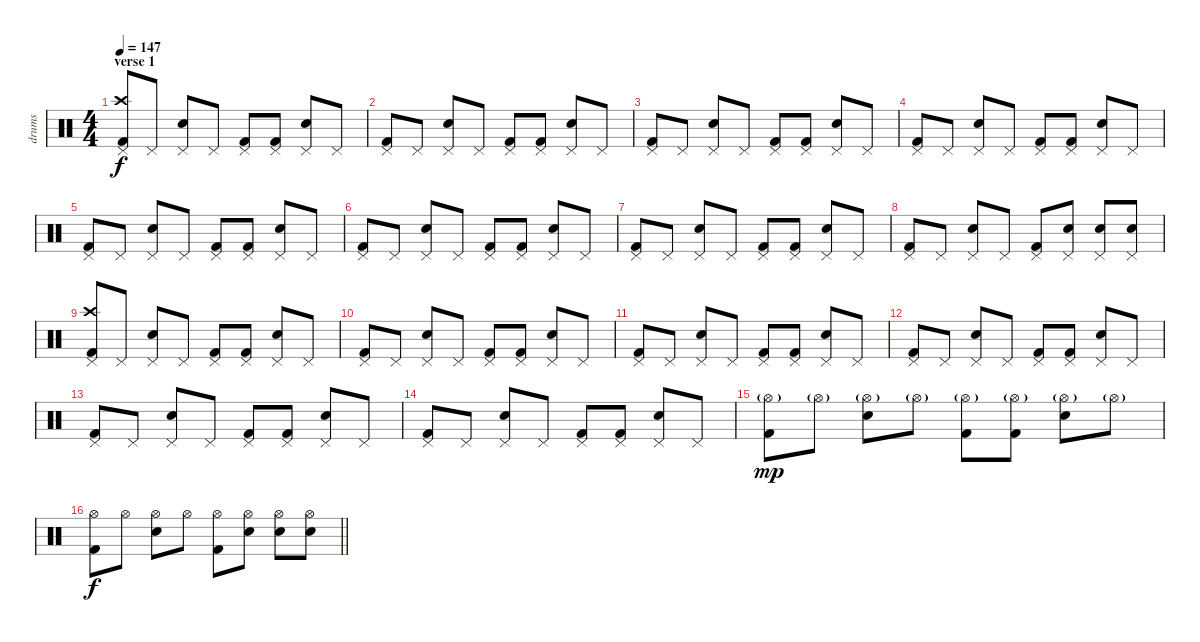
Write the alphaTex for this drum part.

\track ("drums" "drums") {instrument percussion}
\staff {score}
\articulation defaults
\ts (4 4)
\section ("" "verse 1")
\tempo 147
\clef neutral
\ks c
("Kick (hit) 2" "Crash high (hit)" "Pedal Hi-Hat (hit)").8{dy f} "Pedal Hi-Hat (hit)".8 ("Snare (hit) 2" "Pedal Hi-Hat (hit)").8 "Pedal Hi-Hat (hit)".8 ("Kick (hit) 2" "Pedal Hi-Hat (hit)").8 ("Kick (hit) 2" "Pedal Hi-Hat (hit)").8 ("Snare (hit) 2" "Pedal Hi-Hat (hit)").8 "Pedal Hi-Hat (hit)".8 |
("Kick (hit) 2" "Pedal Hi-Hat (hit)").8 "Pedal Hi-Hat (hit)".8 ("Snare (hit) 2" "Pedal Hi-Hat (hit)").8 "Pedal Hi-Hat (hit)".8 ("Kick (hit) 2" "Pedal Hi-Hat (hit)").8 ("Kick (hit) 2" "Pedal Hi-Hat (hit)").8 ("Snare (hit) 2" "Pedal Hi-Hat (hit)").8 "Pedal Hi-Hat (hit)".8 |
("Kick (hit) 2" "Pedal Hi-Hat (hit)").8 "Pedal Hi-Hat (hit)".8 ("Snare (hit) 2" "Pedal Hi-Hat (hit)").8 "Pedal Hi-Hat (hit)".8 ("Kick (hit) 2" "Pedal Hi-Hat (hit)").8 ("Kick (hit) 2" "Pedal Hi-Hat (hit)").8 ("Snare (hit) 2" "Pedal Hi-Hat (hit)").8 "Pedal Hi-Hat (hit)".8 |
("Kick (hit) 2" "Pedal Hi-Hat (hit)").8 "Pedal Hi-Hat (hit)".8 ("Snare (hit) 2" "Pedal Hi-Hat (hit)").8 "Pedal Hi-Hat (hit)".8 ("Kick (hit) 2" "Pedal Hi-Hat (hit)").8 ("Kick (hit) 2" "Pedal Hi-Hat (hit)").8 ("Snare (hit) 2" "Pedal Hi-Hat (hit)").8 "Pedal Hi-Hat (hit)".8 |
("Kick (hit) 2" "Pedal Hi-Hat (hit)").8 "Pedal Hi-Hat (hit)".8 ("Snare (hit) 2" "Pedal Hi-Hat (hit)").8 "Pedal Hi-Hat (hit)".8 ("Kick (hit) 2" "Pedal Hi-Hat (hit)").8 ("Kick (hit) 2" "Pedal Hi-Hat (hit)").8 ("Snare (hit) 2" "Pedal Hi-Hat (hit)").8 "Pedal Hi-Hat (hit)".8 |
("Kick (hit) 2" "Pedal Hi-Hat (hit)").8 "Pedal Hi-Hat (hit)".8 ("Snare (hit) 2" "Pedal Hi-Hat (hit)").8 "Pedal Hi-Hat (hit)".8 ("Kick (hit) 2" "Pedal Hi-Hat (hit)").8 ("Kick (hit) 2" "Pedal Hi-Hat (hit)").8 ("Snare (hit) 2" "Pedal Hi-Hat (hit)").8 "Pedal Hi-Hat (hit)".8 |
("Kick (hit) 2" "Pedal Hi-Hat (hit)").8 "Pedal Hi-Hat (hit)".8 ("Snare (hit) 2" "Pedal Hi-Hat (hit)").8 "Pedal Hi-Hat (hit)".8 ("Kick (hit) 2" "Pedal Hi-Hat (hit)").8 ("Kick (hit) 2" "Pedal Hi-Hat (hit)").8 ("Snare (hit) 2" "Pedal Hi-Hat (hit)").8 "Pedal Hi-Hat (hit)".8 |
("Kick (hit) 2" "Pedal Hi-Hat (hit)").8 "Pedal Hi-Hat (hit)".8 ("Snare (hit) 2" "Pedal Hi-Hat (hit)").8 "Pedal Hi-Hat (hit)".8 ("Kick (hit) 2" "Pedal Hi-Hat (hit)").8 ("Snare (hit) 2" "Pedal Hi-Hat (hit)").8 ("Snare (hit) 2" "Pedal Hi-Hat (hit)").8 ("Snare (hit) 2" "Pedal Hi-Hat (hit)").8 |
("Kick (hit) 2" "Crash high (hit)" "Pedal Hi-Hat (hit)").8 "Pedal Hi-Hat (hit)".8 ("Snare (hit) 2" "Pedal Hi-Hat (hit)").8 "Pedal Hi-Hat (hit)".8 ("Kick (hit) 2" "Pedal Hi-Hat (hit)").8 ("Kick (hit) 2" "Pedal Hi-Hat (hit)").8 ("Snare (hit) 2" "Pedal Hi-Hat (hit)").8 "Pedal Hi-Hat (hit)".8 |
("Kick (hit) 2" "Pedal Hi-Hat (hit)").8 "Pedal Hi-Hat (hit)".8 ("Snare (hit) 2" "Pedal Hi-Hat (hit)").8 "Pedal Hi-Hat (hit)".8 ("Kick (hit) 2" "Pedal Hi-Hat (hit)").8 ("Kick (hit) 2" "Pedal Hi-Hat (hit)").8 ("Snare (hit) 2" "Pedal Hi-Hat (hit)").8 "Pedal Hi-Hat (hit)".8 |
("Kick (hit) 2" "Pedal Hi-Hat (hit)").8 "Pedal Hi-Hat (hit)".8 ("Snare (hit) 2" "Pedal Hi-Hat (hit)").8 "Pedal Hi-Hat (hit)".8 ("Kick (hit) 2" "Pedal Hi-Hat (hit)").8 ("Kick (hit) 2" "Pedal Hi-Hat (hit)").8 ("Snare (hit) 2" "Pedal Hi-Hat (hit)").8 "Pedal Hi-Hat (hit)".8 |
("Kick (hit) 2" "Pedal Hi-Hat (hit)").8 "Pedal Hi-Hat (hit)".8 ("Snare (hit) 2" "Pedal Hi-Hat (hit)").8 "Pedal Hi-Hat (hit)".8 ("Kick (hit) 2" "Pedal Hi-Hat (hit)").8 ("Kick (hit) 2" "Pedal Hi-Hat (hit)").8 ("Snare (hit) 2" "Pedal Hi-Hat (hit)").8 "Pedal Hi-Hat (hit)".8 |
("Kick (hit) 2" "Pedal Hi-Hat (hit)").8 "Pedal Hi-Hat (hit)".8 ("Snare (hit) 2" "Pedal Hi-Hat (hit)").8 "Pedal Hi-Hat (hit)".8 ("Kick (hit) 2" "Pedal Hi-Hat (hit)").8 ("Kick (hit) 2" "Pedal Hi-Hat (hit)").8 ("Snare (hit) 2" "Pedal Hi-Hat (hit)").8 "Pedal Hi-Hat (hit)".8 |
("Kick (hit) 2" "Pedal Hi-Hat (hit)").8 "Pedal Hi-Hat (hit)".8 ("Snare (hit) 2" "Pedal Hi-Hat (hit)").8 "Pedal Hi-Hat (hit)".8 ("Kick (hit) 2" "Pedal Hi-Hat (hit)").8 ("Kick (hit) 2" "Pedal Hi-Hat (hit)").8 ("Snare (hit) 2" "Pedal Hi-Hat (hit)").8 "Pedal Hi-Hat (hit)".8 |
("Kick (hit) 2" "Hi-Hat (open)"{g}).8{dy mp} "Hi-Hat (open)"{g}.8 ("Snare (hit) 2" "Hi-Hat (open)"{g}).8 "Hi-Hat (open)"{g}.8 ("Kick (hit) 2" "Hi-Hat (open)"{g}).8 ("Kick (hit) 2" "Hi-Hat (open)"{g}).8 ("Snare (hit) 2" "Hi-Hat (open)"{g}).8 "Hi-Hat (open)"{g}.8 |
\barLineRight lightlight
("Kick (hit) 2" "Hi-Hat (open)").8{dy f} "Hi-Hat (open)".8 ("Snare (hit) 2" "Hi-Hat (open)").8 "Hi-Hat (open)".8 ("Kick (hit) 2" "Hi-Hat (open)").8 ("Snare (hit) 2" "Hi-Hat (open)").8 ("Snare (hit) 2" "Hi-Hat (open)").8 ("Snare (hit) 2" "Hi-Hat (open)").8
